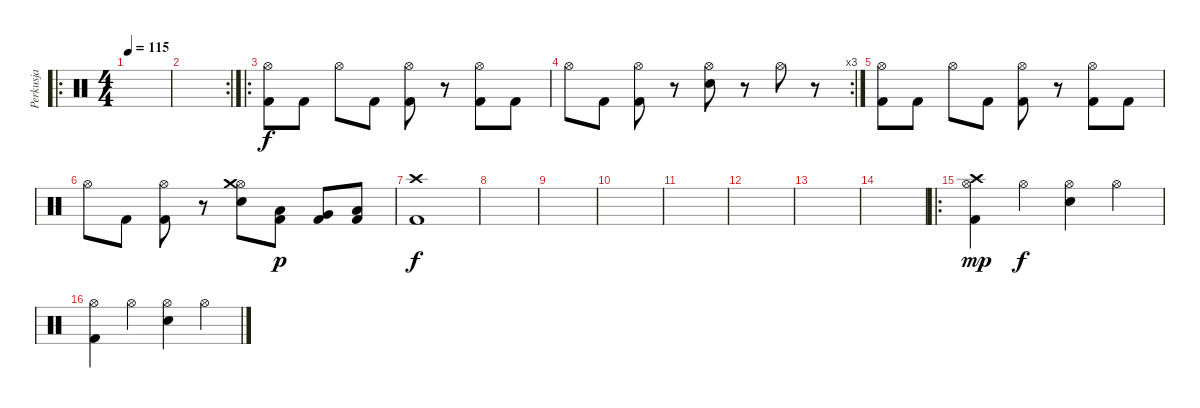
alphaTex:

\track ("Perkusja" "Perkusja") {instrument percussion}
\staff {score}
\articulation defaults
\ro
\ts (4 4)
\tempo 115
\clef neutral
\ks c
|
\rc 2
|
\ro
("Hi-Hat (open)" "Kick (hit) 2").8 "Kick (hit) 2".8 "Hi-Hat (open)".8 "Kick (hit) 2".8 ("Hi-Hat (open)" "Kick (hit) 2").8 r.8 ("Hi-Hat (open)" "Kick (hit) 2").8 "Kick (hit) 2".8 |
\rc 3 "Hi-Hat (open)".8 "Kick (hit) 2".8
("Hi-Hat (open)" "Kick (hit) 2").8 r.8 ("Hi-Hat (open)" "Electric Snare (hit)").8 r.8 "Hi-Hat (open)".8 r.8 |
("Hi-Hat (open)" "Kick (hit) 2").8 "Kick (hit) 2".8 "Hi-Hat (open)".8 "Kick (hit) 2".8 ("Hi-Hat (open)" "Kick (hit) 2").8 r.8 ("Hi-Hat (open)" "Kick (hit) 2").8 "Kick (hit) 2".8 |
"Hi-Hat (open)".8 "Kick (hit) 2".8 ("Hi-Hat (open)" "Kick (hit) 2").8 r.8 ("Hi-Hat (open)" "Crash medium (hit)" "Electric Snare (hit)").8 ("Low Tom (hit)" "Kick (hit) 2").8{dy p} ("Very Low Tom (hit)" "Kick (hit) 2").8 ("Low Floor Tom (hit)" "Kick (hit) 2").8 |
("Crash high (hit)" "Kick (hit) 2").1{dy f} |
|
|
|
|
|
|
|
\ro
("Crash high (hit)" "Hi-Hat (open)" "Kick (hit) 2").4{dy mp} "Hi-Hat (open)".4{dy f} ("Hi-Hat (open)" "Electric Snare (hit)").4 "Hi-Hat (open)".4 |
("Hi-Hat (open)" "Kick (hit) 2").4 "Hi-Hat (open)".4 ("Hi-Hat (open)" "Electric Snare (hit)").4 "Hi-Hat (open)".4
